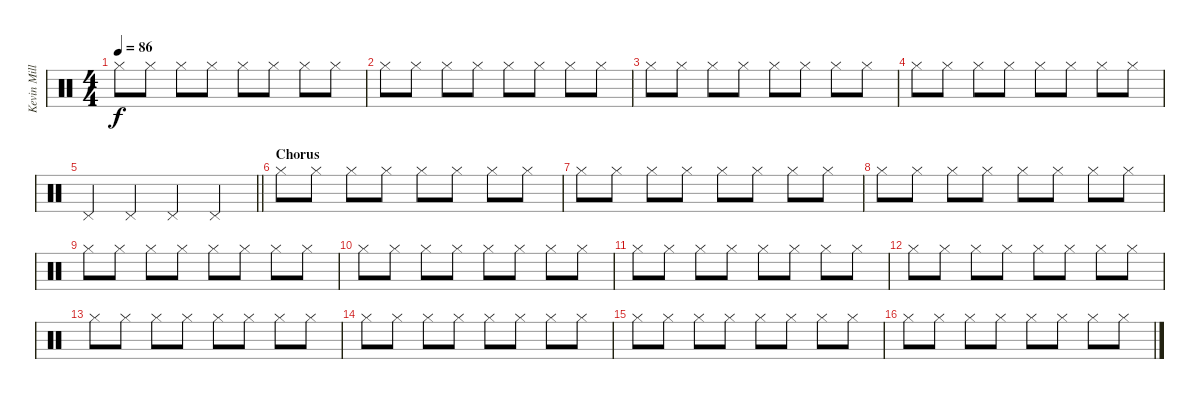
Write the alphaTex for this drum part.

\track ("Kevin Miller (Drums)" "Kevin Mill") {instrument percussion}
\staff {score}
\articulation defaults
\ts (4 4)
\tempo 86
\clef neutral
\ks c "Hi-Hat (closed)".8{dy f} "Hi-Hat (closed)".8 "Hi-Hat (closed)".8 "Hi-Hat (closed)".8 "Hi-Hat (closed)".8 "Hi-Hat (closed)".8 "Hi-Hat (closed)".8 "Hi-Hat (closed)".8
|
"Hi-Hat (closed)".8 "Hi-Hat (closed)".8 "Hi-Hat (closed)".8 "Hi-Hat (closed)".8 "Hi-Hat (closed)".8 "Hi-Hat (closed)".8 "Hi-Hat (closed)".8 "Hi-Hat (closed)".8 |
"Hi-Hat (closed)".8 "Hi-Hat (closed)".8 "Hi-Hat (closed)".8 "Hi-Hat (closed)".8 "Hi-Hat (closed)".8 "Hi-Hat (closed)".8 "Hi-Hat (closed)".8 "Hi-Hat (closed)".8 |
"Hi-Hat (closed)".8 "Hi-Hat (closed)".8 "Hi-Hat (closed)".8 "Hi-Hat (closed)".8 "Hi-Hat (closed)".8 "Hi-Hat (closed)".8 "Hi-Hat (closed)".8 "Hi-Hat (closed)".8 |
\barLineRight lightlight "Pedal Hi-Hat (hit)".4 "Pedal Hi-Hat (hit)".4 "Pedal Hi-Hat (hit)".4 "Pedal Hi-Hat (hit)".4
|
\section ("" "Chorus")
"Hi-Hat (closed)".8 "Hi-Hat (closed)".8 "Hi-Hat (closed)".8 "Hi-Hat (closed)".8 "Hi-Hat (closed)".8 "Hi-Hat (closed)".8 "Hi-Hat (closed)".8 "Hi-Hat (closed)".8 |
"Hi-Hat (closed)".8 "Hi-Hat (closed)".8 "Hi-Hat (closed)".8 "Hi-Hat (closed)".8 "Hi-Hat (closed)".8 "Hi-Hat (closed)".8 "Hi-Hat (closed)".8 "Hi-Hat (closed)".8 |
"Hi-Hat (closed)".8 "Hi-Hat (closed)".8 "Hi-Hat (closed)".8 "Hi-Hat (closed)".8 "Hi-Hat (closed)".8 "Hi-Hat (closed)".8 "Hi-Hat (closed)".8 "Hi-Hat (closed)".8 |
"Hi-Hat (closed)".8 "Hi-Hat (closed)".8 "Hi-Hat (closed)".8 "Hi-Hat (closed)".8 "Hi-Hat (closed)".8 "Hi-Hat (closed)".8 "Hi-Hat (closed)".8 "Hi-Hat (closed)".8 |
"Hi-Hat (closed)".8 "Hi-Hat (closed)".8 "Hi-Hat (closed)".8 "Hi-Hat (closed)".8 "Hi-Hat (closed)".8 "Hi-Hat (closed)".8 "Hi-Hat (closed)".8 "Hi-Hat (closed)".8 |
"Hi-Hat (closed)".8 "Hi-Hat (closed)".8 "Hi-Hat (closed)".8 "Hi-Hat (closed)".8 "Hi-Hat (closed)".8 "Hi-Hat (closed)".8 "Hi-Hat (closed)".8 "Hi-Hat (closed)".8 |
"Hi-Hat (closed)".8 "Hi-Hat (closed)".8 "Hi-Hat (closed)".8 "Hi-Hat (closed)".8 "Hi-Hat (closed)".8 "Hi-Hat (closed)".8 "Hi-Hat (closed)".8 "Hi-Hat (closed)".8 |
"Hi-Hat (closed)".8 "Hi-Hat (closed)".8 "Hi-Hat (closed)".8 "Hi-Hat (closed)".8 "Hi-Hat (closed)".8 "Hi-Hat (closed)".8 "Hi-Hat (closed)".8 "Hi-Hat (closed)".8 |
"Hi-Hat (closed)".8 "Hi-Hat (closed)".8 "Hi-Hat (closed)".8 "Hi-Hat (closed)".8 "Hi-Hat (closed)".8 "Hi-Hat (closed)".8 "Hi-Hat (closed)".8 "Hi-Hat (closed)".8 |
"Hi-Hat (closed)".8 "Hi-Hat (closed)".8 "Hi-Hat (closed)".8 "Hi-Hat (closed)".8 "Hi-Hat (closed)".8 "Hi-Hat (closed)".8 "Hi-Hat (closed)".8 "Hi-Hat (closed)".8 |
"Hi-Hat (closed)".8 "Hi-Hat (closed)".8 "Hi-Hat (closed)".8 "Hi-Hat (closed)".8 "Hi-Hat (closed)".8 "Hi-Hat (closed)".8 "Hi-Hat (closed)".8 "Hi-Hat (closed)".8
